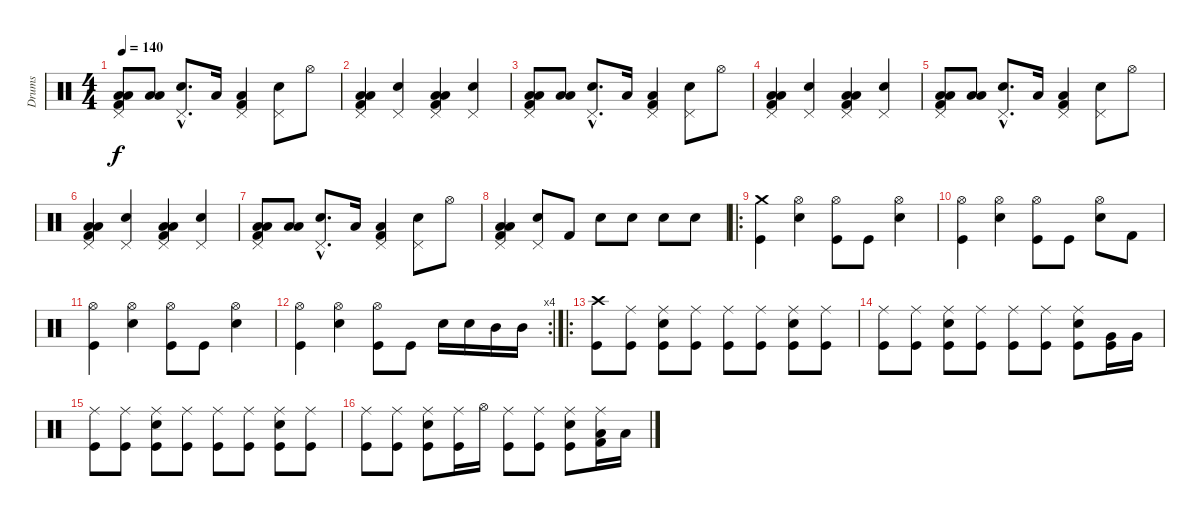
\track ("Drums" "Drums") {instrument percussion}
\staff {score}
\articulation defaults
\ts (4 4)
\tempo 140
\clef neutral
\ks c
("Kick (hit) 2" "Low Tom (hit)" "Low Floor Tom (hit)" "Pedal Hi-Hat (hit)").8{dy f} ("Low Tom (hit)" "Low Floor Tom (hit)").8 ("Snare (hit) 2"{hac} "Pedal Hi-Hat (hit)"{hac}).8{d} "Low Floor Tom (hit)".16 ("Kick (hit) 2" "Low Floor Tom (hit)" "Pedal Hi-Hat (hit)").4 ("Snare (hit) 2" "Pedal Hi-Hat (hit)").8 "Hi-Hat (open)".8 |
("Kick (hit) 2" "Low Floor Tom (hit)" "Low Tom (hit)" "Pedal Hi-Hat (hit)").4 ("Snare (hit) 2" "Pedal Hi-Hat (hit)").4 ("Kick (hit) 2" "Low Floor Tom (hit)" "Low Tom (hit)" "Pedal Hi-Hat (hit)").4 ("Snare (hit) 2" "Pedal Hi-Hat (hit)").4 |
("Kick (hit) 2" "Low Tom (hit)" "Low Floor Tom (hit)" "Pedal Hi-Hat (hit)").8 ("Low Tom (hit)" "Low Floor Tom (hit)").8 ("Snare (hit) 2"{hac} "Pedal Hi-Hat (hit)"{hac}).8{d} "Low Floor Tom (hit)".16 ("Kick (hit) 2" "Low Floor Tom (hit)" "Pedal Hi-Hat (hit)").4 ("Snare (hit) 2" "Pedal Hi-Hat (hit)").8 "Hi-Hat (open)".8 |
("Kick (hit) 2" "Low Floor Tom (hit)" "Low Tom (hit)" "Pedal Hi-Hat (hit)").4 ("Snare (hit) 2" "Pedal Hi-Hat (hit)").4 ("Kick (hit) 2" "Low Floor Tom (hit)" "Low Tom (hit)" "Pedal Hi-Hat (hit)").4 ("Snare (hit) 2" "Pedal Hi-Hat (hit)").4 |
("Kick (hit) 2" "Low Tom (hit)" "Low Floor Tom (hit)" "Pedal Hi-Hat (hit)").8 ("Low Tom (hit)" "Low Floor Tom (hit)").8 ("Snare (hit) 2"{hac} "Pedal Hi-Hat (hit)"{hac}).8{d} "Low Floor Tom (hit)".16 ("Kick (hit) 2" "Low Floor Tom (hit)" "Pedal Hi-Hat (hit)").4 ("Snare (hit) 2" "Pedal Hi-Hat (hit)").8 "Hi-Hat (open)".8 |
("Kick (hit) 2" "Low Floor Tom (hit)" "Low Tom (hit)" "Pedal Hi-Hat (hit)").4 ("Snare (hit) 2" "Pedal Hi-Hat (hit)").4 ("Kick (hit) 2" "Low Floor Tom (hit)" "Low Tom (hit)" "Pedal Hi-Hat (hit)").4 ("Snare (hit) 2" "Pedal Hi-Hat (hit)").4 |
("Kick (hit) 2" "Low Tom (hit)" "Low Floor Tom (hit)" "Pedal Hi-Hat (hit)").8 ("Low Tom (hit)" "Low Floor Tom (hit)").8 ("Snare (hit) 2"{hac} "Pedal Hi-Hat (hit)"{hac}).8{d} "Low Floor Tom (hit)".16 ("Kick (hit) 2" "Low Floor Tom (hit)" "Pedal Hi-Hat (hit)").4 ("Snare (hit) 2" "Pedal Hi-Hat (hit)").8 "Hi-Hat (open)".8 |
("Kick (hit) 2" "Low Floor Tom (hit)" "Low Tom (hit)" "Pedal Hi-Hat (hit)").4 ("Snare (hit) 2" "Pedal Hi-Hat (hit)").8 "Kick (hit) 2".8 "Snare (hit) 2".8 "Snare (hit) 2".8 "Snare (hit) 2".8 "Snare (hit) 2".8 |
\ro
("Crash medium (hit)" "Kick (hit)").4 ("Hi-Hat (open)" "Snare (hit) 2").4 ("Hi-Hat (open)" "Kick (hit)").8 "Kick (hit)".8 ("Hi-Hat (open)" "Snare (hit) 2").4 |
("Hi-Hat (open)" "Kick (hit)").4 ("Hi-Hat (open)" "Snare (hit) 2").4 ("Hi-Hat (open)" "Kick (hit)").8 "Kick (hit)".8 ("Hi-Hat (open)" "Snare (hit) 2").8 "Kick (hit) 2".8 |
("Hi-Hat (open)" "Kick (hit)").4 ("Hi-Hat (open)" "Snare (hit) 2").4 ("Hi-Hat (open)" "Kick (hit)").8 "Kick (hit)".8 ("Hi-Hat (open)" "Snare (hit) 2").4 |
\rc 4
("Hi-Hat (open)" "Kick (hit)").4 ("Hi-Hat (open)" "Snare (hit) 2").4 ("Hi-Hat (open)" "Kick (hit)").8 "Kick (hit)".8 "Snare (hit) 2".16 "Snare (hit) 2".16 "Mid Tom (hit)".16 "Mid Tom (hit)".16 |
\ro
("Crash high (hit)" "Kick (hit)").8 ("Ride (middle)" "Kick (hit)").8 ("Ride (middle)" "Snare (hit) 2" "Kick (hit)").8 ("Ride (middle)" "Kick (hit)").8 ("Ride (middle)" "Kick (hit)").8 ("Ride (middle)" "Kick (hit)").8 ("Ride (middle)" "Snare (hit) 2" "Kick (hit)").8 ("Ride (middle)" "Kick (hit)").8 |
("Ride (middle)" "Kick (hit)").8 ("Ride (middle)" "Kick (hit)").8 ("Ride (middle)" "Snare (hit) 2" "Kick (hit)").8 ("Ride (middle)" "Kick (hit)").8 ("Ride (middle)" "Kick (hit)").8 ("Ride (middle)" "Kick (hit)").8 ("Ride (middle)" "Snare (hit) 2" "Kick (hit)").8 ("Very Low Tom (hit)" "Kick (hit)").16 "Very Low Tom (hit)".16 |
("Ride (middle)" "Kick (hit)").8 ("Ride (middle)" "Kick (hit)").8 ("Ride (middle)" "Snare (hit) 2" "Kick (hit)").8 ("Ride (middle)" "Kick (hit)").8 ("Ride (middle)" "Kick (hit)").8 ("Ride (middle)" "Kick (hit)").8 ("Ride (middle)" "Snare (hit) 2" "Kick (hit)").8 ("Ride (middle)" "Kick (hit)").8 |
("Ride (middle)" "Kick (hit)").8 ("Ride (middle)" "Kick (hit)").8 ("Ride (middle)" "Snare (hit) 2" "Kick (hit)").8 ("Ride (middle)" "Kick (hit)").16 "Hi-Hat (open)".16 ("Ride (middle)" "Kick (hit)").8 ("Ride (middle)" "Kick (hit)").8 ("Ride (middle)" "Snare (hit) 2" "Kick (hit)").8 ("Ride (middle)" "Low Floor Tom (hit)" "Kick (hit) 2").16 "Low Floor Tom (hit)".16
